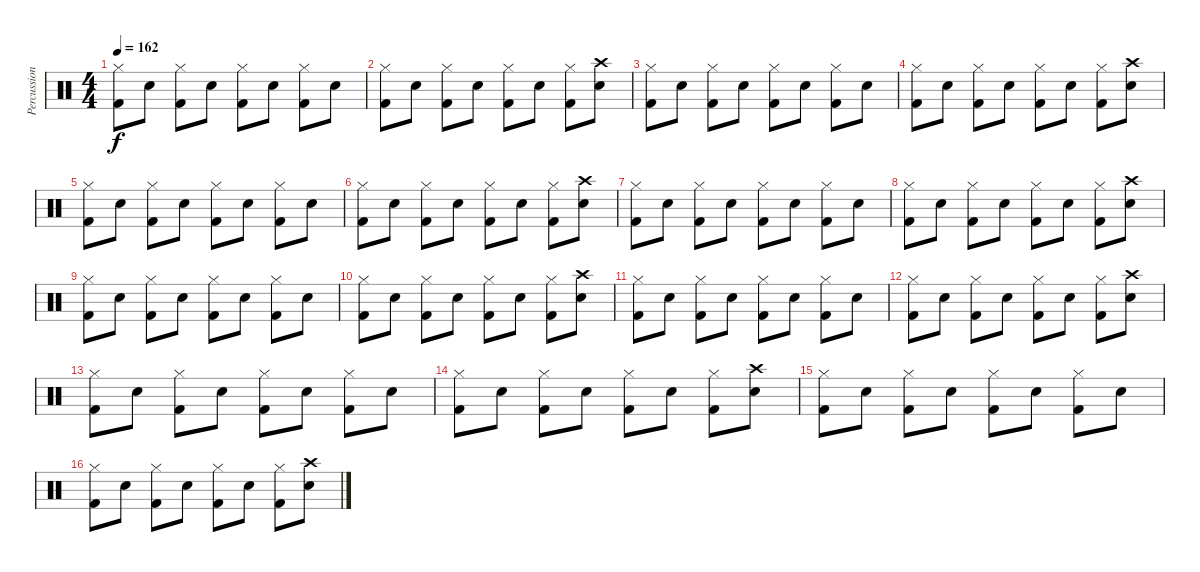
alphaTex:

\track ("Percussion" "Percussion") {instrument percussion}
\staff {score}
\articulation defaults
\ts (4 4)
\tempo 162
\clef neutral
\ks c
("Hi-Hat (closed)" "Kick (hit) 2").8{dy f} "Snare (hit) 2".8 ("Hi-Hat (closed)" "Kick (hit) 2").8 "Snare (hit) 2".8 ("Hi-Hat (closed)" "Kick (hit) 2").8 "Snare (hit) 2".8 ("Hi-Hat (closed)" "Kick (hit) 2").8 "Snare (hit) 2".8 |
("Hi-Hat (closed)" "Kick (hit) 2").8 "Snare (hit) 2".8 ("Hi-Hat (closed)" "Kick (hit) 2").8 "Snare (hit) 2".8 ("Hi-Hat (closed)" "Kick (hit) 2").8 "Snare (hit) 2".8 ("Hi-Hat (closed)" "Kick (hit) 2").8 ("Crash high (hit)" "Snare (hit) 2").8 |
("Hi-Hat (closed)" "Kick (hit) 2").8 "Snare (hit) 2".8 ("Hi-Hat (closed)" "Kick (hit) 2").8 "Snare (hit) 2".8 ("Hi-Hat (closed)" "Kick (hit) 2").8 "Snare (hit) 2".8 ("Hi-Hat (closed)" "Kick (hit) 2").8 "Snare (hit) 2".8 |
("Hi-Hat (closed)" "Kick (hit) 2").8 "Snare (hit) 2".8 ("Hi-Hat (closed)" "Kick (hit) 2").8 "Snare (hit) 2".8 ("Hi-Hat (closed)" "Kick (hit) 2").8 "Snare (hit) 2".8 ("Hi-Hat (closed)" "Kick (hit) 2").8 ("Crash high (hit)" "Snare (hit) 2").8 |
("Hi-Hat (closed)" "Kick (hit) 2").8 "Snare (hit) 2".8 ("Hi-Hat (closed)" "Kick (hit) 2").8 "Snare (hit) 2".8 ("Hi-Hat (closed)" "Kick (hit) 2").8 "Snare (hit) 2".8 ("Hi-Hat (closed)" "Kick (hit) 2").8 "Snare (hit) 2".8 |
("Hi-Hat (closed)" "Kick (hit) 2").8 "Snare (hit) 2".8 ("Hi-Hat (closed)" "Kick (hit) 2").8 "Snare (hit) 2".8 ("Hi-Hat (closed)" "Kick (hit) 2").8 "Snare (hit) 2".8 ("Hi-Hat (closed)" "Kick (hit) 2").8 ("Crash high (hit)" "Snare (hit) 2").8 |
("Hi-Hat (closed)" "Kick (hit) 2").8 "Snare (hit) 2".8 ("Hi-Hat (closed)" "Kick (hit) 2").8 "Snare (hit) 2".8 ("Hi-Hat (closed)" "Kick (hit) 2").8 "Snare (hit) 2".8 ("Hi-Hat (closed)" "Kick (hit) 2").8 "Snare (hit) 2".8 |
("Hi-Hat (closed)" "Kick (hit) 2").8 "Snare (hit) 2".8 ("Hi-Hat (closed)" "Kick (hit) 2").8 "Snare (hit) 2".8 ("Hi-Hat (closed)" "Kick (hit) 2").8 "Snare (hit) 2".8 ("Hi-Hat (closed)" "Kick (hit) 2").8 ("Crash high (hit)" "Snare (hit) 2").8 |
("Hi-Hat (closed)" "Kick (hit) 2").8 "Snare (hit) 2".8 ("Hi-Hat (closed)" "Kick (hit) 2").8 "Snare (hit) 2".8 ("Hi-Hat (closed)" "Kick (hit) 2").8 "Snare (hit) 2".8 ("Hi-Hat (closed)" "Kick (hit) 2").8 "Snare (hit) 2".8 |
("Hi-Hat (closed)" "Kick (hit) 2").8 "Snare (hit) 2".8 ("Hi-Hat (closed)" "Kick (hit) 2").8 "Snare (hit) 2".8 ("Hi-Hat (closed)" "Kick (hit) 2").8 "Snare (hit) 2".8 ("Hi-Hat (closed)" "Kick (hit) 2").8 ("Crash high (hit)" "Snare (hit) 2").8 |
("Hi-Hat (closed)" "Kick (hit) 2").8 "Snare (hit) 2".8 ("Hi-Hat (closed)" "Kick (hit) 2").8 "Snare (hit) 2".8 ("Hi-Hat (closed)" "Kick (hit) 2").8 "Snare (hit) 2".8 ("Hi-Hat (closed)" "Kick (hit) 2").8 "Snare (hit) 2".8 |
("Hi-Hat (closed)" "Kick (hit) 2").8 "Snare (hit) 2".8 ("Hi-Hat (closed)" "Kick (hit) 2").8 "Snare (hit) 2".8 ("Hi-Hat (closed)" "Kick (hit) 2").8 "Snare (hit) 2".8 ("Hi-Hat (closed)" "Kick (hit) 2").8 ("Crash high (hit)" "Snare (hit) 2").8 |
("Hi-Hat (closed)" "Kick (hit) 2").8 "Snare (hit) 2".8 ("Hi-Hat (closed)" "Kick (hit) 2").8 "Snare (hit) 2".8 ("Hi-Hat (closed)" "Kick (hit) 2").8 "Snare (hit) 2".8 ("Hi-Hat (closed)" "Kick (hit) 2").8 "Snare (hit) 2".8 |
("Hi-Hat (closed)" "Kick (hit) 2").8 "Snare (hit) 2".8 ("Hi-Hat (closed)" "Kick (hit) 2").8 "Snare (hit) 2".8 ("Hi-Hat (closed)" "Kick (hit) 2").8 "Snare (hit) 2".8 ("Hi-Hat (closed)" "Kick (hit) 2").8 ("Crash high (hit)" "Snare (hit) 2").8 |
("Hi-Hat (closed)" "Kick (hit) 2").8 "Snare (hit) 2".8 ("Hi-Hat (closed)" "Kick (hit) 2").8 "Snare (hit) 2".8 ("Hi-Hat (closed)" "Kick (hit) 2").8 "Snare (hit) 2".8 ("Hi-Hat (closed)" "Kick (hit) 2").8 "Snare (hit) 2".8 |
("Hi-Hat (closed)" "Kick (hit) 2").8 "Snare (hit) 2".8 ("Hi-Hat (closed)" "Kick (hit) 2").8 "Snare (hit) 2".8 ("Hi-Hat (closed)" "Kick (hit) 2").8 "Snare (hit) 2".8 ("Hi-Hat (closed)" "Kick (hit) 2").8 ("Crash high (hit)" "Snare (hit) 2").8
